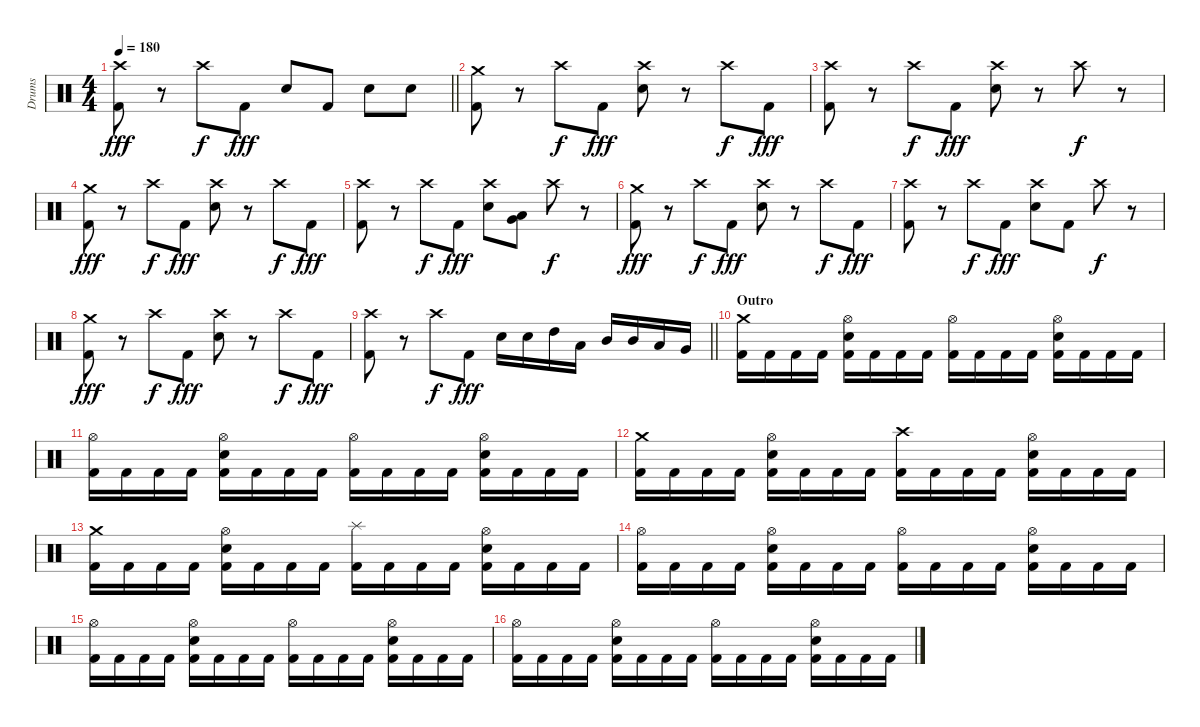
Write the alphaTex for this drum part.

\track ("Drums" "Drums") {instrument percussion}
\staff {score}
\articulation defaults
\ts (4 4)
\tempo 180
\clef neutral
\barLineRight lightlight
\ks c
("Crash high (hit)" "Kick (hit) 2").8{dy fff} r.8 "Crash high (hit)".8{dy f} "Kick (hit) 2".8{dy fff} "Electric Snare (hit)".8 "Kick (hit) 2".8 "Electric Snare (hit)".8 "Electric Snare (hit)".8 |
\section ("" "")
("Crash medium (hit)" "Kick (hit) 2").8 r.8 "Crash high (hit)".8{dy f} "Kick (hit) 2".8{dy fff} ("Crash high (hit)" "Electric Snare (hit)").8 r.8 "Crash high (hit)".8{dy f} "Kick (hit) 2".8{dy fff} |
("Crash high (hit)" "Kick (hit) 2").8 r.8 "Crash high (hit)".8{dy f} "Kick (hit) 2".8{dy fff} ("Crash high (hit)" "Electric Snare (hit)").8 r.8 "Crash high (hit)".8{dy f} r.8 |
("Crash medium (hit)" "Kick (hit) 2").8{dy fff} r.8 "Crash high (hit)".8{dy f} "Kick (hit) 2".8{dy fff} ("Crash high (hit)" "Electric Snare (hit)").8 r.8 "Crash high (hit)".8{dy f} "Kick (hit) 2".8{dy fff} |
("Crash high (hit)" "Kick (hit) 2").8 r.8 "Crash high (hit)".8{dy f} "Kick (hit) 2".8{dy fff} ("Crash high (hit)" "Electric Snare (hit)").8 ("Low Tom (hit)" "Very Low Tom (hit)").8 "Crash high (hit)".8{dy f} r.8 |
("Crash medium (hit)" "Kick (hit) 2").8{dy fff} r.8 "Crash high (hit)".8{dy f} "Kick (hit) 2".8{dy fff} ("Crash high (hit)" "Electric Snare (hit)").8 r.8 "Crash high (hit)".8{dy f} "Kick (hit) 2".8{dy fff} |
("Crash high (hit)" "Kick (hit) 2").8 r.8 "Crash high (hit)".8{dy f} "Kick (hit) 2".8{dy fff} ("Crash high (hit)" "Electric Snare (hit)").8 "Kick (hit) 2".8 "Crash high (hit)".8{dy f} r.8 |
("Crash medium (hit)" "Kick (hit) 2").8{dy fff} r.8 "Crash high (hit)".8{dy f} "Kick (hit) 2".8{dy fff} ("Crash high (hit)" "Electric Snare (hit)").8 r.8 "Crash high (hit)".8{dy f} "Kick (hit) 2".8{dy fff} |
\barLineRight lightlight
("Crash high (hit)" "Kick (hit) 2").8 r.8 "Crash high (hit)".8{dy f} "Kick (hit) 2".8{dy fff} "Electric Snare (hit)".16 "Electric Snare (hit)".16 "High Tom (hit)".16 "Low Tom (hit)".16 "Mid Tom (hit)".16 "Mid Tom (hit)".16 "Low Tom (hit)".16 "Very Low Tom (hit)".16 |
\section ("" "Outro")
("Crash medium (hit)" "Kick (hit) 2").16 "Kick (hit) 2".16 "Kick (hit) 2".16 "Kick (hit) 2".16 ("Hi-Hat (open)" "Electric Snare (hit)" "Kick (hit) 2").16 "Kick (hit) 2".16 "Kick (hit) 2".16 "Kick (hit) 2".16 ("Hi-Hat (open)" "Kick (hit) 2").16 "Kick (hit) 2".16 "Kick (hit) 2".16 "Kick (hit) 2".16 ("Hi-Hat (open)" "Electric Snare (hit)" "Kick (hit) 2").16 "Kick (hit) 2".16 "Kick (hit) 2".16 "Kick (hit) 2".16 |
("Hi-Hat (open)" "Kick (hit) 2").16 "Kick (hit) 2".16 "Kick (hit) 2".16 "Kick (hit) 2".16 ("Hi-Hat (open)" "Electric Snare (hit)" "Kick (hit) 2").16 "Kick (hit) 2".16 "Kick (hit) 2".16 "Kick (hit) 2".16 ("Hi-Hat (open)" "Kick (hit) 2").16 "Kick (hit) 2".16 "Kick (hit) 2".16 "Kick (hit) 2".16 ("Hi-Hat (open)" "Electric Snare (hit)" "Kick (hit) 2").16 "Kick (hit) 2".16 "Kick (hit) 2".16 "Kick (hit) 2".16 |
("Crash medium (hit)" "Kick (hit) 2").16 "Kick (hit) 2".16 "Kick (hit) 2".16 "Kick (hit) 2".16 ("Hi-Hat (open)" "Electric Snare (hit)" "Kick (hit) 2").16 "Kick (hit) 2".16 "Kick (hit) 2".16 "Kick (hit) 2".16 ("Crash high (hit)" "Kick (hit) 2").16 "Kick (hit) 2".16 "Kick (hit) 2".16 "Kick (hit) 2".16 ("Hi-Hat (open)" "Electric Snare (hit)" "Kick (hit) 2").16 "Kick (hit) 2".16 "Kick (hit) 2".16 "Kick (hit) 2".16 |
("Crash medium (hit)" "Kick (hit) 2").16 "Kick (hit) 2".16 "Kick (hit) 2".16 "Kick (hit) 2".16 ("Hi-Hat (open)" "Electric Snare (hit)" "Kick (hit) 2").16 "Kick (hit) 2".16 "Kick (hit) 2".16 "Kick (hit) 2".16 ("Splash (hit)" "Kick (hit) 2").16 "Kick (hit) 2".16 "Kick (hit) 2".16 "Kick (hit) 2".16 ("Hi-Hat (open)" "Electric Snare (hit)" "Kick (hit) 2").16 "Kick (hit) 2".16 "Kick (hit) 2".16 "Kick (hit) 2".16 |
("Hi-Hat (open)" "Kick (hit) 2").16 "Kick (hit) 2".16 "Kick (hit) 2".16 "Kick (hit) 2".16 ("Hi-Hat (open)" "Electric Snare (hit)" "Kick (hit) 2").16 "Kick (hit) 2".16 "Kick (hit) 2".16 "Kick (hit) 2".16 ("Hi-Hat (open)" "Kick (hit) 2").16 "Kick (hit) 2".16 "Kick (hit) 2".16 "Kick (hit) 2".16 ("Hi-Hat (open)" "Electric Snare (hit)" "Kick (hit) 2").16 "Kick (hit) 2".16 "Kick (hit) 2".16 "Kick (hit) 2".16 |
("Hi-Hat (open)" "Kick (hit) 2").16 "Kick (hit) 2".16 "Kick (hit) 2".16 "Kick (hit) 2".16 ("Hi-Hat (open)" "Electric Snare (hit)" "Kick (hit) 2").16 "Kick (hit) 2".16 "Kick (hit) 2".16 "Kick (hit) 2".16 ("Hi-Hat (open)" "Kick (hit) 2").16 "Kick (hit) 2".16 "Kick (hit) 2".16 "Kick (hit) 2".16 ("Hi-Hat (open)" "Electric Snare (hit)" "Kick (hit) 2").16 "Kick (hit) 2".16 "Kick (hit) 2".16 "Kick (hit) 2".16 |
("Hi-Hat (open)" "Kick (hit) 2").16 "Kick (hit) 2".16 "Kick (hit) 2".16 "Kick (hit) 2".16 ("Hi-Hat (open)" "Electric Snare (hit)" "Kick (hit) 2").16 "Kick (hit) 2".16 "Kick (hit) 2".16 "Kick (hit) 2".16 ("Hi-Hat (open)" "Kick (hit) 2").16 "Kick (hit) 2".16 "Kick (hit) 2".16 "Kick (hit) 2".16 ("Hi-Hat (open)" "Electric Snare (hit)" "Kick (hit) 2").16 "Kick (hit) 2".16 "Kick (hit) 2".16 "Kick (hit) 2".16
